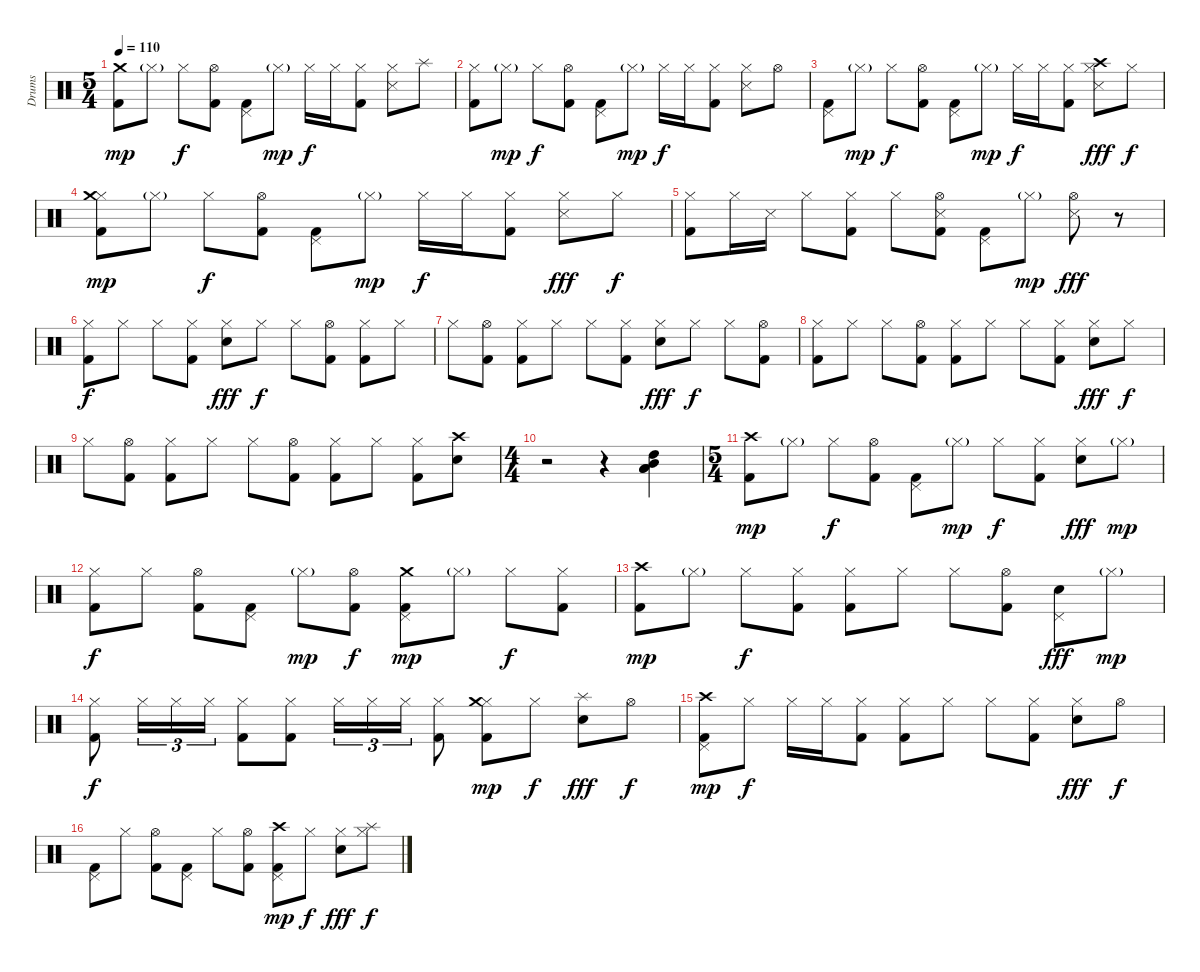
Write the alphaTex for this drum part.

\track ("Drums" "Drums") {instrument percussion}
\staff {score}
\articulation defaults
\ts (5 4)
\tempo 110
\clef neutral
\ks c
("Crash medium (hit)" "Kick (hit) 2").8{dy mp} "Hi-Hat (closed)"{g}.8 "Hi-Hat (closed)".8{dy f} ("Hi-Hat (open)" "Kick (hit) 2").8 ("Pedal Hi-Hat (hit)" "Kick (hit) 2").8 "Hi-Hat (closed)"{g}.8{dy mp} "Hi-Hat (closed)".16{dy f} "Hi-Hat (closed)".16 ("Hi-Hat (closed)" "Kick (hit) 2").8 ("Hi-Hat (closed)" "Snare (side stick) 3").8 "Splash (hit)".8 |
("Hi-Hat (closed)" "Kick (hit) 2").8 "Hi-Hat (closed)"{g}.8{dy mp} "Hi-Hat (closed)".8{dy f} ("Hi-Hat (open)" "Kick (hit) 2").8 ("Pedal Hi-Hat (hit)" "Kick (hit) 2").8 "Hi-Hat (closed)"{g}.8{dy mp} "Hi-Hat (closed)".16{dy f} "Hi-Hat (closed)".16 ("Hi-Hat (closed)" "Kick (hit) 2").8 ("Hi-Hat (closed)" "Snare (side stick) 3").8 "Hi-Hat (open)".8 |
("Pedal Hi-Hat (hit)" "Kick (hit) 2").8 "Hi-Hat (closed)"{g}.8{dy mp} "Hi-Hat (closed)".8{dy f} ("Hi-Hat (open)" "Kick (hit) 2").8 ("Pedal Hi-Hat (hit)" "Kick (hit) 2").8 "Hi-Hat (closed)"{g}.8{dy mp} "Hi-Hat (closed)".16{dy f} "Hi-Hat (closed)".16 ("Hi-Hat (closed)" "Kick (hit) 2").8 ("Hi-Hat (closed)" "Crash high (hit)" "Snare (side stick) 3").8{dy fff} "Hi-Hat (closed)".8{dy f} |
("Hi-Hat (closed)" "Crash medium (hit)" "Kick (hit) 2").8{dy mp} "Hi-Hat (closed)"{g}.8 "Hi-Hat (closed)".8{dy f} ("Hi-Hat (open)" "Kick (hit) 2").8 ("Pedal Hi-Hat (hit)" "Kick (hit) 2").8 "Hi-Hat (closed)"{g}.8{dy mp} "Hi-Hat (closed)".16{dy f} "Hi-Hat (closed)".16 ("Hi-Hat (closed)" "Kick (hit) 2").8 ("Hi-Hat (closed)" "Snare (side stick) 3").8{dy fff} "Hi-Hat (closed)".8{dy f} |
("Hi-Hat (closed)" "Kick (hit) 2").8 "Hi-Hat (closed)".16 "Snare (side stick) 3".16 "Hi-Hat (closed)".8 ("Hi-Hat (closed)" "Kick (hit) 2").8 "Hi-Hat (closed)".8 ("Hi-Hat (open)" "Snare (side stick) 3" "Kick (hit) 2").8 ("Pedal Hi-Hat (hit)" "Kick (hit) 2").8 "Hi-Hat (closed)"{g}.8{dy mp} ("Hi-Hat (open)" "Snare (side stick) 3").8{dy fff} r.8 |
("Hi-Hat (closed)" "Kick (hit) 2").8{dy f} "Hi-Hat (closed)".8 "Hi-Hat (closed)".8 ("Hi-Hat (closed)" "Kick (hit) 2").8 ("Hi-Hat (closed)" "Electric Snare (hit)").8{dy fff} "Hi-Hat (closed)".8{dy f} "Hi-Hat (closed)".8 ("Hi-Hat (open)" "Kick (hit) 2").8 ("Hi-Hat (closed)" "Kick (hit) 2").8 "Hi-Hat (closed)".8 |
"Hi-Hat (closed)".8 ("Hi-Hat (open)" "Kick (hit) 2").8 ("Hi-Hat (closed)" "Kick (hit) 2").8 "Hi-Hat (closed)".8 "Hi-Hat (closed)".8 ("Hi-Hat (closed)" "Kick (hit) 2").8 ("Hi-Hat (closed)" "Electric Snare (hit)").8{dy fff} "Hi-Hat (closed)".8{dy f} "Hi-Hat (closed)".8 ("Hi-Hat (open)" "Kick (hit) 2").8 |
("Hi-Hat (closed)" "Kick (hit) 2").8 "Hi-Hat (closed)".8 "Hi-Hat (closed)".8 ("Hi-Hat (open)" "Kick (hit) 2").8 ("Hi-Hat (closed)" "Kick (hit) 2").8 "Hi-Hat (closed)".8 "Hi-Hat (closed)".8 ("Hi-Hat (closed)" "Kick (hit) 2").8 ("Hi-Hat (closed)" "Electric Snare (hit)").8{dy fff} "Hi-Hat (closed)".8{dy f} |
"Hi-Hat (closed)".8 ("Hi-Hat (open)" "Kick (hit) 2").8 ("Hi-Hat (closed)" "Kick (hit) 2").8 "Hi-Hat (closed)".8 "Hi-Hat (closed)".8 ("Hi-Hat (open)" "Kick (hit) 2").8 ("Hi-Hat (closed)" "Kick (hit) 2").8 "Hi-Hat (closed)".8 ("Hi-Hat (closed)" "Kick (hit) 2").8 ("Crash high (hit)" "Electric Snare (hit)").8 |
\ts (4 4)
r.2 r.4 ("High Tom (hit)" "Mid Tom (hit)" "Low Tom (hit)" "Low Floor Tom (hit)").4 |
\ts (5 4)
("Crash high (hit)" "Kick (hit) 2").8{dy mp} "Hi-Hat (closed)"{g}.8 "Hi-Hat (closed)".8{dy f} ("Hi-Hat (open)" "Kick (hit) 2").8 ("Pedal Hi-Hat (hit)" "Kick (hit) 2").8 "Hi-Hat (closed)"{g}.8{dy mp} "Hi-Hat (closed)".8{dy f} ("Hi-Hat (closed)" "Kick (hit) 2").8 ("Hi-Hat (closed)" "Electric Snare (hit)").8{dy fff} "Hi-Hat (closed)"{g}.8{dy mp} |
("Hi-Hat (closed)" "Kick (hit) 2").8{dy f} "Hi-Hat (closed)".8 ("Hi-Hat (open)" "Kick (hit) 2").8 ("Pedal Hi-Hat (hit)" "Kick (hit) 2").8 "Hi-Hat (closed)"{g}.8{dy mp} ("Hi-Hat (open)" "Kick (hit) 2").8{dy f} ("Pedal Hi-Hat (hit)" "Crash medium (hit)" "Kick (hit) 2").8{dy mp} "Hi-Hat (closed)"{g}.8 "Hi-Hat (closed)".8{dy f} ("Hi-Hat (closed)" "Kick (hit) 2").8 |
("Crash high (hit)" "Kick (hit) 2").8{dy mp} "Hi-Hat (closed)"{g}.8 "Hi-Hat (closed)".8{dy f} ("Hi-Hat (closed)" "Kick (hit) 2").8 ("Hi-Hat (closed)" "Kick (hit) 2").8 "Hi-Hat (closed)".8 "Hi-Hat (closed)".8 ("Hi-Hat (open)" "Kick (hit) 2").8 ("Pedal Hi-Hat (hit)" "Electric Snare (hit)").8{dy fff} "Hi-Hat (closed)"{g}.8{dy mp} |
("Hi-Hat (closed)" "Kick (hit) 2").8{dy f} "Hi-Hat (closed)".16{tu (3 2)} "Hi-Hat (closed)".16{tu (3 2)} "Hi-Hat (closed)".16{tu (3 2)} ("Hi-Hat (closed)" "Kick (hit) 2").8 ("Hi-Hat (closed)" "Kick (hit) 2").8 "Hi-Hat (closed)".16{tu (3 2)} "Hi-Hat (closed)".16{tu (3 2)} "Hi-Hat (closed)".16{tu (3 2)} ("Hi-Hat (closed)" "Kick (hit) 2").8 ("Hi-Hat (closed)" "Crash medium (hit)" "Kick (hit) 2").8{dy mp} "Hi-Hat (closed)".8{dy f} ("Splash (hit)" "Electric Snare (hit)").8{dy fff} "Hi-Hat (open)".8{dy f} |
("Pedal Hi-Hat (hit)" "Crash high (hit)" "Kick (hit) 2").8{dy mp} "Hi-Hat (closed)".8{dy f} "Hi-Hat (closed)".16 "Hi-Hat (closed)".16 ("Hi-Hat (closed)" "Kick (hit) 2").8 ("Hi-Hat (closed)" "Kick (hit) 2").8 "Hi-Hat (closed)".8 "Hi-Hat (closed)".8 ("Hi-Hat (closed)" "Kick (hit) 2").8 ("Hi-Hat (closed)" "Electric Snare (hit)").8{dy fff} "Hi-Hat (open)".8{dy f} |
("Pedal Hi-Hat (hit)" "Kick (hit) 2").8 "Hi-Hat (closed)".8 ("Hi-Hat (open)" "Kick (hit) 2").8 ("Pedal Hi-Hat (hit)" "Kick (hit) 2").8 "Hi-Hat (closed)".8 ("Hi-Hat (open)" "Kick (hit) 2").8 ("Pedal Hi-Hat (hit)" "Crash high (hit)" "Kick (hit) 2").8{dy mp} "Hi-Hat (closed)".8{dy f} ("Hi-Hat (closed)" "Electric Snare (hit)").8{dy fff} ("Hi-Hat (closed)" "Splash (hit)").8{dy f}
